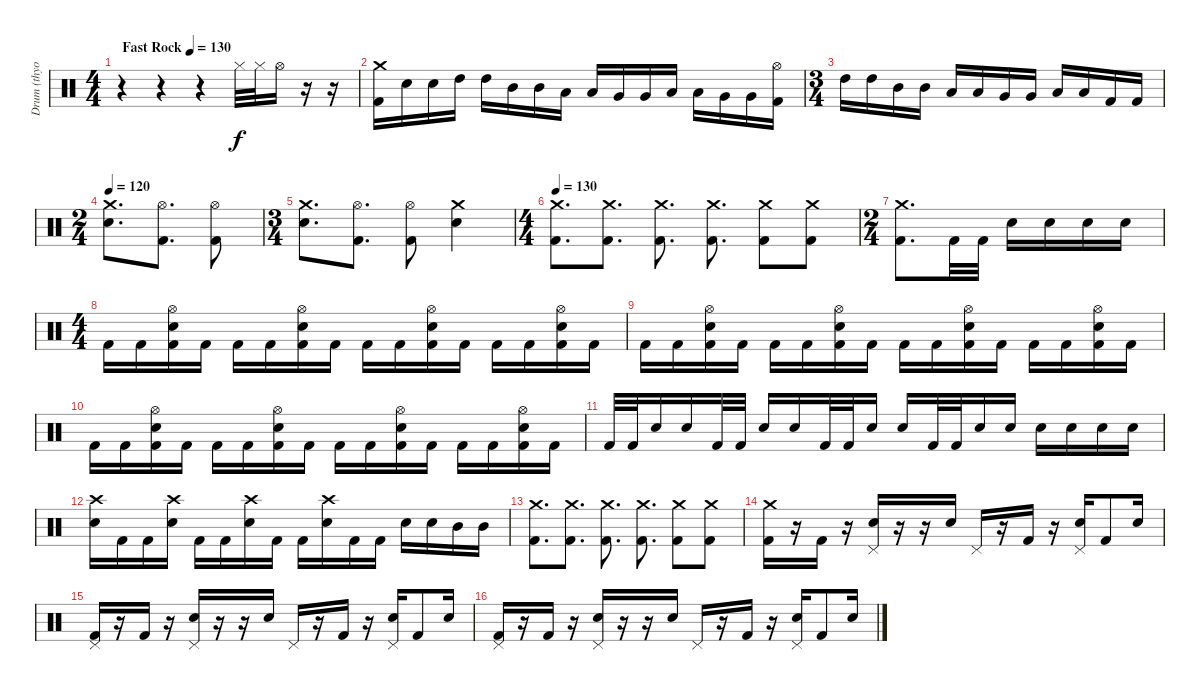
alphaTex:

\track ("Drum (thyo)" "Drum (thyo") {instrument percussion}
\staff {score}
\articulation defaults
\ts (4 4)
\tempo (130 "Fast Rock")
\clef neutral
\ks c
r.4{dy f} r.4 r.4 "Hi-Hat (closed)".32 "Hi-Hat (closed)".32 "Hi-Hat (open)".16 r.16 r.16 |
("Crash medium (hit)" "Kick (hit) 2").16 "Electric Snare (hit)".16 "Electric Snare (hit)".16 "High Tom (hit)".16 "High Tom (hit)".16 "Mid Tom (hit)".16 "Mid Tom (hit)".16 "Low Tom (hit)".16 "Low Tom (hit)".16 "Very Low Tom (hit)".16 "Very Low Tom (hit)".16 "Low Floor Tom (hit)".16 "Low Floor Tom (hit)".16 "Very Low Tom (hit)".16 "Very Low Tom (hit)".16 ("Hi-Hat (open)" "Kick (hit) 2").16 |
\ts (3 4)
"High Tom (hit)".16 "High Tom (hit)".16 "Mid Tom (hit)".16 "Mid Tom (hit)".16 "Low Tom (hit)".16 "Low Tom (hit)".16 "Very Low Tom (hit)".16 "Very Low Tom (hit)".16 "Low Floor Tom (hit)".16 "Low Floor Tom (hit)".16 "Kick (hit) 2".16 "Kick (hit) 2".16 |
\ts (2 4)
\tempo 120
("Crash medium (hit)" "Electric Snare (hit)").8{d} ("Hi-Hat (open)" "Kick (hit) 2").8{d} ("Hi-Hat (open)" "Kick (hit) 2").8 |
\ts (3 4)
("Crash medium (hit)" "Electric Snare (hit)").8{d} ("Hi-Hat (open)" "Kick (hit) 2").8{d} ("Hi-Hat (open)" "Kick (hit) 2").8 ("Crash medium (hit)" "Electric Snare (hit)").4 |
\ts (4 4)
\tempo 130
("Crash medium (hit)" "Kick (hit) 2").8{d} ("Crash medium (hit)" "Kick (hit) 2").8{d} ("Crash medium (hit)" "Kick (hit) 2").8{d} ("Crash medium (hit)" "Kick (hit) 2").8{d} ("Crash medium (hit)" "Kick (hit) 2").8 ("Crash medium (hit)" "Kick (hit) 2").8 |
\ts (2 4)
("Crash medium (hit)" "Kick (hit) 2").8{d} "Kick (hit) 2".32 "Kick (hit) 2".32 "Electric Snare (hit)".16 "Electric Snare (hit)".16 "Electric Snare (hit)".16 "Electric Snare (hit)".16 |
\ts (4 4)
"Kick (hit) 2".16 "Kick (hit) 2".16 ("Hi-Hat (open)" "Electric Snare (hit)" "Kick (hit) 2").16 "Kick (hit) 2".16 "Kick (hit) 2".16 "Kick (hit) 2".16 ("Hi-Hat (open)" "Electric Snare (hit)" "Kick (hit) 2").16 "Kick (hit) 2".16 "Kick (hit) 2".16 "Kick (hit) 2".16 ("Hi-Hat (open)" "Electric Snare (hit)" "Kick (hit) 2").16 "Kick (hit) 2".16 "Kick (hit) 2".16 "Kick (hit) 2".16 ("Hi-Hat (open)" "Electric Snare (hit)" "Kick (hit) 2").16 "Kick (hit) 2".16 |
"Kick (hit) 2".16 "Kick (hit) 2".16 ("Hi-Hat (open)" "Electric Snare (hit)" "Kick (hit) 2").16 "Kick (hit) 2".16 "Kick (hit) 2".16 "Kick (hit) 2".16 ("Hi-Hat (open)" "Electric Snare (hit)" "Kick (hit) 2").16 "Kick (hit) 2".16 "Kick (hit) 2".16 "Kick (hit) 2".16 ("Hi-Hat (open)" "Electric Snare (hit)" "Kick (hit) 2").16 "Kick (hit) 2".16 "Kick (hit) 2".16 "Kick (hit) 2".16 ("Hi-Hat (open)" "Electric Snare (hit)" "Kick (hit) 2").16 "Kick (hit) 2".16 |
"Kick (hit) 2".16 "Kick (hit) 2".16 ("Hi-Hat (open)" "Electric Snare (hit)" "Kick (hit) 2").16 "Kick (hit) 2".16 "Kick (hit) 2".16 "Kick (hit) 2".16 ("Hi-Hat (open)" "Electric Snare (hit)" "Kick (hit) 2").16 "Kick (hit) 2".16 "Kick (hit) 2".16 "Kick (hit) 2".16 ("Hi-Hat (open)" "Electric Snare (hit)" "Kick (hit) 2").16 "Kick (hit) 2".16 "Kick (hit) 2".16 "Kick (hit) 2".16 ("Hi-Hat (open)" "Electric Snare (hit)" "Kick (hit) 2").16 "Kick (hit) 2".16 |
"Kick (hit) 2".32 "Kick (hit) 2".32 "Electric Snare (hit)".16 "Electric Snare (hit)".16 "Kick (hit) 2".32 "Kick (hit) 2".32 "Electric Snare (hit)".16 "Electric Snare (hit)".16 "Kick (hit) 2".32 "Kick (hit) 2".32 "Electric Snare (hit)".16 "Electric Snare (hit)".16 "Kick (hit) 2".32 "Kick (hit) 2".32 "Electric Snare (hit)".16 "Electric Snare (hit)".16 "Electric Snare (hit)".16 "Electric Snare (hit)".16 "Electric Snare (hit)".16 "Electric Snare (hit)".16 |
("Crash high (hit)" "Electric Snare (hit)").16 "Kick (hit) 2".16 "Kick (hit) 2".16 ("Crash high (hit)" "Electric Snare (hit)").16 "Kick (hit) 2".16 "Kick (hit) 2".16 ("Crash high (hit)" "Electric Snare (hit)").16 "Kick (hit) 2".16 "Kick (hit) 2".16 ("Crash high (hit)" "Electric Snare (hit)").16 "Kick (hit) 2".16 "Kick (hit) 2".16 "Electric Snare (hit)".16 "Electric Snare (hit)".16 "Mid Tom (hit)".16 "Mid Tom (hit)".16 |
("Crash medium (hit)" "Kick (hit) 2").8{d} ("Crash medium (hit)" "Kick (hit) 2").8{d} ("Crash medium (hit)" "Kick (hit) 2").8{d} ("Crash medium (hit)" "Kick (hit) 2").8{d} ("Crash medium (hit)" "Kick (hit) 2").8 ("Crash medium (hit)" "Kick (hit) 2").8 |
("Crash medium (hit)" "Kick (hit) 2").16 r.16 "Kick (hit) 2".16 r.16 ("Electric Snare (hit)" "Pedal Hi-Hat (hit)").16 r.16 r.16 "Electric Snare (hit)".16 "Pedal Hi-Hat (hit)".16 r.16 "Kick (hit) 2".16 r.16 ("Electric Snare (hit)" "Pedal Hi-Hat (hit)").16 "Kick (hit) 2".8 "Electric Snare (hit)".16 |
("Pedal Hi-Hat (hit)" "Kick (hit) 2").16 r.16 "Kick (hit) 2".16 r.16 ("Electric Snare (hit)" "Pedal Hi-Hat (hit)").16 r.16 r.16 "Electric Snare (hit)".16 "Pedal Hi-Hat (hit)".16 r.16 "Kick (hit) 2".16 r.16 ("Electric Snare (hit)" "Pedal Hi-Hat (hit)").16 "Kick (hit) 2".8 "Electric Snare (hit)".16 |
("Pedal Hi-Hat (hit)" "Kick (hit) 2").16 r.16 "Kick (hit) 2".16 r.16 ("Electric Snare (hit)" "Pedal Hi-Hat (hit)").16 r.16 r.16 "Electric Snare (hit)".16 "Pedal Hi-Hat (hit)".16 r.16 "Kick (hit) 2".16 r.16 ("Electric Snare (hit)" "Pedal Hi-Hat (hit)").16 "Kick (hit) 2".8 "Electric Snare (hit)".16
